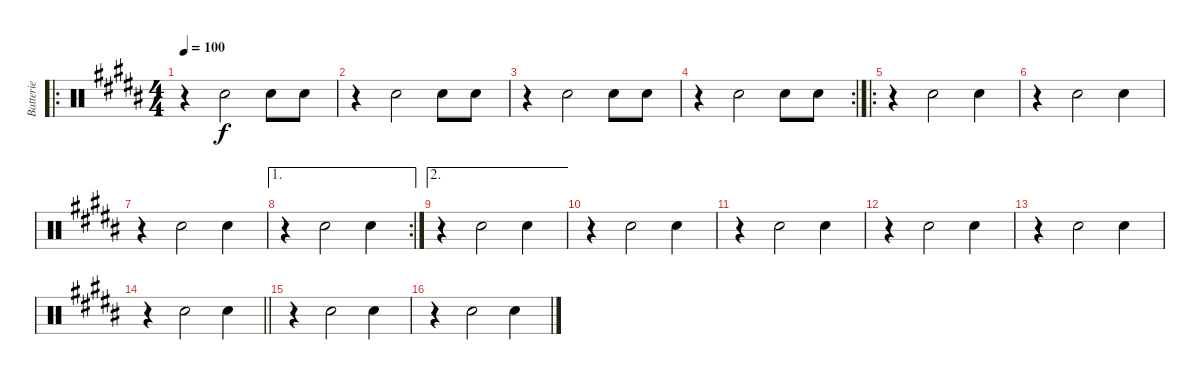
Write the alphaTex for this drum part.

\track ("Batterie" "Batterie") {instrument percussion}
\staff {score}
\articulation defaults
\ro
\ts (4 4)
\tempo 100
\clef neutral
\ks b
r.4{dy f} "Snare (hit) 2".2 "Snare (hit) 2".8 "Snare (hit) 2".8 |
r.4 "Snare (hit) 2".2 "Snare (hit) 2".8 "Snare (hit) 2".8 |
r.4 "Snare (hit) 2".2 "Snare (hit) 2".8 "Snare (hit) 2".8 |
\rc 2
r.4 "Snare (hit) 2".2 "Snare (hit) 2".8 "Snare (hit) 2".8 |
\ro
r.4 "Snare (hit) 2".2 "Snare (hit) 2".4 |
r.4 "Snare (hit) 2".2 "Snare (hit) 2".4 |
r.4 "Snare (hit) 2".2 "Snare (hit) 2".4 |
\ae 1
\rc 2
r.4 "Snare (hit) 2".2 "Snare (hit) 2".4 |
\ae 2
r.4 "Snare (hit) 2".2 "Snare (hit) 2".4 |
r.4 "Snare (hit) 2".2 "Snare (hit) 2".4 |
r.4 "Snare (hit) 2".2 "Snare (hit) 2".4 |
r.4 "Snare (hit) 2".2 "Snare (hit) 2".4 |
r.4 "Snare (hit) 2".2 "Snare (hit) 2".4 |
\barLineRight lightlight
r.4 "Snare (hit) 2".2 "Snare (hit) 2".4 |
r.4 "Snare (hit) 2".2 "Snare (hit) 2".4 |
r.4 "Snare (hit) 2".2 "Snare (hit) 2".4
